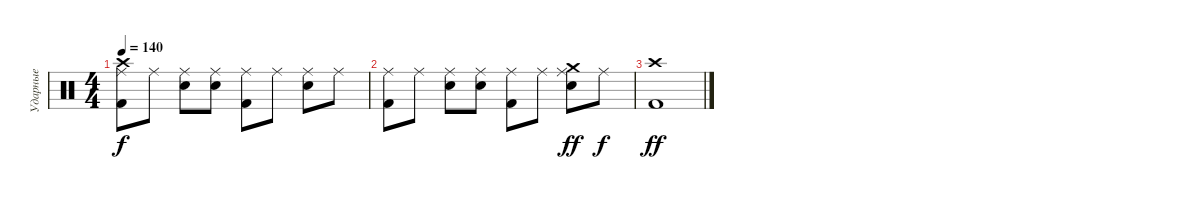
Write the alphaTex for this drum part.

\track ("Ударные" "Ударные") {instrument percussion}
\staff {score}
\articulation defaults
\ts (4 4)
\tempo 140
\clef neutral
\ks c
("Crash high (hit)" "Ride (middle)" "Kick (hit) 2").8{dy f} "Ride (middle)".8 ("Ride (middle)" "Snare (hit) 2").8 ("Ride (middle)" "Snare (hit) 2").8 ("Ride (middle)" "Kick (hit) 2").8 "Ride (middle)".8 ("Ride (middle)" "Snare (hit) 2").8 "Ride (middle)".8 |
("Ride (middle)" "Kick (hit) 2").8 "Ride (middle)".8 ("Ride (middle)" "Snare (hit) 2").8 ("Ride (middle)" "Snare (hit) 2").8 ("Ride (middle)" "Kick (hit) 2").8 "Ride (middle)".8 ("Crash medium (hit)" "Ride (middle)" "Snare (hit) 2").8{dy ff} "Ride (middle)".8{dy f} |
("Kick (hit) 2" "Crash high (hit)").1{dy ff}
